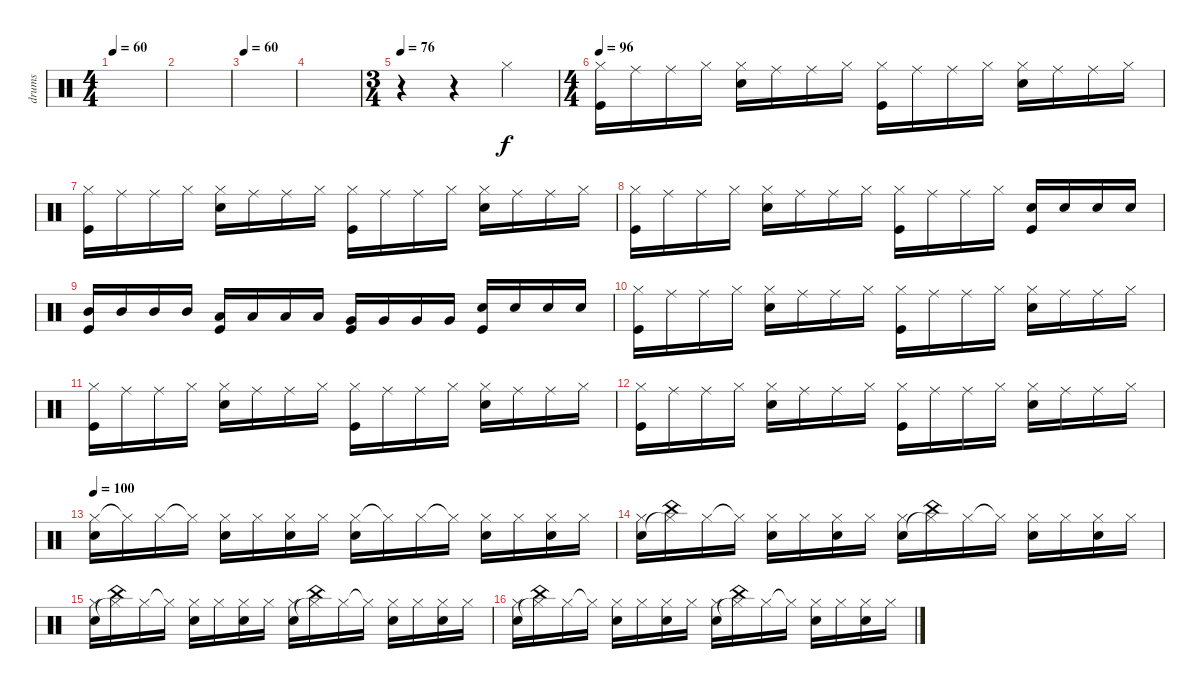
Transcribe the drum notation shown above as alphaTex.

\track ("drums" "drums") {instrument percussion}
\staff {score}
\articulation defaults
\ts (4 4)
\tempo 60
\clef neutral
\ks c
|
|
\tempo 60
|
|
\ts (3 4)
\tempo 76
r.4 r.4 "Hi-Hat (closed)".4 |
\ts (4 4)
\tempo 96
("Hi-Hat (closed)" "Kick (hit)").16 "Ride (middle)".16 "Ride (middle)".16 "Hi-Hat (closed)".16 ("Hi-Hat (closed)" "Electric Snare (hit)").16 "Ride (middle)".16 "Ride (middle)".16 "Hi-Hat (closed)".16 ("Hi-Hat (closed)" "Kick (hit)").16 "Ride (middle)".16 "Ride (middle)".16 "Hi-Hat (closed)".16 ("Hi-Hat (closed)" "Electric Snare (hit)").16 "Ride (middle)".16 "Ride (middle)".16 "Hi-Hat (closed)".16 |
("Hi-Hat (closed)" "Kick (hit)").16 "Ride (middle)".16 "Ride (middle)".16 "Hi-Hat (closed)".16 ("Hi-Hat (closed)" "Electric Snare (hit)").16 "Ride (middle)".16 "Ride (middle)".16 "Hi-Hat (closed)".16 ("Hi-Hat (closed)" "Kick (hit)").16 "Ride (middle)".16 "Ride (middle)".16 "Hi-Hat (closed)".16 ("Hi-Hat (closed)" "Electric Snare (hit)").16 "Ride (middle)".16 "Ride (middle)".16 "Hi-Hat (closed)".16 |
("Hi-Hat (closed)" "Kick (hit)").16 "Ride (middle)".16 "Ride (middle)".16 "Hi-Hat (closed)".16 ("Hi-Hat (closed)" "Electric Snare (hit)").16 "Ride (middle)".16 "Ride (middle)".16 "Hi-Hat (closed)".16 ("Hi-Hat (closed)" "Kick (hit)").16 "Ride (middle)".16 "Ride (middle)".16 "Hi-Hat (closed)".16 ("Electric Snare (hit)" "Kick (hit)").16 "Electric Snare (hit)".16 "Electric Snare (hit)".16 "Electric Snare (hit)".16 |
("Mid Tom (hit)" "Kick (hit)").16 "Mid Tom (hit)".16 "Mid Tom (hit)".16 "Mid Tom (hit)".16 ("Low Tom (hit)" "Kick (hit)").16 "Low Tom (hit)".16 "Low Tom (hit)".16 "Low Tom (hit)".16 ("Very Low Tom (hit)" "Kick (hit)").16 "Very Low Tom (hit)".16 "Very Low Tom (hit)".16 "Very Low Tom (hit)".16 ("Electric Snare (hit)" "Kick (hit)").16 "Electric Snare (hit)".16 "Electric Snare (hit)".16 "Electric Snare (hit)".16 |
("Hi-Hat (closed)" "Kick (hit)").16 "Ride (middle)".16 "Ride (middle)".16 "Hi-Hat (closed)".16 ("Hi-Hat (closed)" "Electric Snare (hit)").16 "Ride (middle)".16 "Ride (middle)".16 "Hi-Hat (closed)".16 ("Hi-Hat (closed)" "Kick (hit)").16 "Ride (middle)".16 "Ride (middle)".16 "Hi-Hat (closed)".16 ("Hi-Hat (closed)" "Electric Snare (hit)").16 "Ride (middle)".16 "Ride (middle)".16 "Hi-Hat (closed)".16 |
("Hi-Hat (closed)" "Kick (hit)").16 "Ride (middle)".16 "Ride (middle)".16 "Hi-Hat (closed)".16 ("Hi-Hat (closed)" "Electric Snare (hit)").16 "Ride (middle)".16 "Ride (middle)".16 "Hi-Hat (closed)".16 ("Hi-Hat (closed)" "Kick (hit)").16 "Ride (middle)".16 "Ride (middle)".16 "Hi-Hat (closed)".16 ("Hi-Hat (closed)" "Electric Snare (hit)").16 "Ride (middle)".16 "Ride (middle)".16 "Hi-Hat (closed)".16 |
("Hi-Hat (closed)" "Kick (hit)").16 "Ride (middle)".16 "Ride (middle)".16 "Hi-Hat (closed)".16 ("Hi-Hat (closed)" "Electric Snare (hit)").16 "Ride (middle)".16 "Ride (middle)".16 "Hi-Hat (closed)".16 ("Hi-Hat (closed)" "Kick (hit)").16 "Ride (middle)".16 "Ride (middle)".16 "Hi-Hat (closed)".16 ("Hi-Hat (closed)" "Electric Snare (hit)").16 "Ride (middle)".16 "Ride (middle)".16 "Hi-Hat (closed)".16 |
\tempo 100
("Hi-Hat (closed)" "Electric Snare (hit)").16 "Hi-Hat (closed)"{t}.16 "Hi-Hat (closed)".16 "Hi-Hat (closed)"{t}.16 ("Hi-Hat (closed)" "Electric Snare (hit)").16 "Hi-Hat (closed)".16 ("Hi-Hat (closed)" "Electric Snare (hit)").16 "Hi-Hat (closed)".16 ("Hi-Hat (closed)" "Electric Snare (hit)").16 "Hi-Hat (closed)"{t}.16 "Hi-Hat (closed)".16 "Hi-Hat (closed)"{t}.16 ("Hi-Hat (closed)" "Electric Snare (hit)").16 "Hi-Hat (closed)".16 ("Hi-Hat (closed)" "Electric Snare (hit)").16 "Hi-Hat (closed)".16 |
("Hi-Hat (closed)" "Electric Snare (hit)").16 ("China (hit)" "Hi-Hat (closed)"{t}).16 "Hi-Hat (closed)".16 "Hi-Hat (closed)"{t}.16 ("Hi-Hat (closed)" "Electric Snare (hit)").16 "Hi-Hat (closed)".16 ("Hi-Hat (closed)" "Electric Snare (hit)").16 "Hi-Hat (closed)".16 ("Hi-Hat (closed)" "Electric Snare (hit)").16 ("China (hit)" "Hi-Hat (closed)"{t}).16 "Hi-Hat (closed)".16 "Hi-Hat (closed)"{t}.16 ("Hi-Hat (closed)" "Electric Snare (hit)").16 "Hi-Hat (closed)".16 ("Hi-Hat (closed)" "Electric Snare (hit)").16 "Hi-Hat (closed)".16 |
("Hi-Hat (closed)" "Electric Snare (hit)").16 ("China (hit)" "Hi-Hat (closed)"{t}).16 "Hi-Hat (closed)".16 "Hi-Hat (closed)"{t}.16 ("Hi-Hat (closed)" "Electric Snare (hit)").16 "Hi-Hat (closed)".16 ("Hi-Hat (closed)" "Electric Snare (hit)").16 "Hi-Hat (closed)".16 ("Hi-Hat (closed)" "Electric Snare (hit)").16 ("China (hit)" "Hi-Hat (closed)"{t}).16 "Hi-Hat (closed)".16 "Hi-Hat (closed)"{t}.16 ("Hi-Hat (closed)" "Electric Snare (hit)").16 "Hi-Hat (closed)".16 ("Hi-Hat (closed)" "Electric Snare (hit)").16 "Hi-Hat (closed)".16 |
("Hi-Hat (closed)" "Electric Snare (hit)").16 ("China (hit)" "Hi-Hat (closed)"{t}).16 "Hi-Hat (closed)".16 "Hi-Hat (closed)"{t}.16 ("Hi-Hat (closed)" "Electric Snare (hit)").16 "Hi-Hat (closed)".16 ("Hi-Hat (closed)" "Electric Snare (hit)").16 "Hi-Hat (closed)".16 ("Hi-Hat (closed)" "Electric Snare (hit)").16 ("China (hit)" "Hi-Hat (closed)"{t}).16 "Hi-Hat (closed)".16 "Hi-Hat (closed)"{t}.16 ("Hi-Hat (closed)" "Electric Snare (hit)").16 "Hi-Hat (closed)".16 ("Hi-Hat (closed)" "Electric Snare (hit)").16 "Hi-Hat (closed)".16
